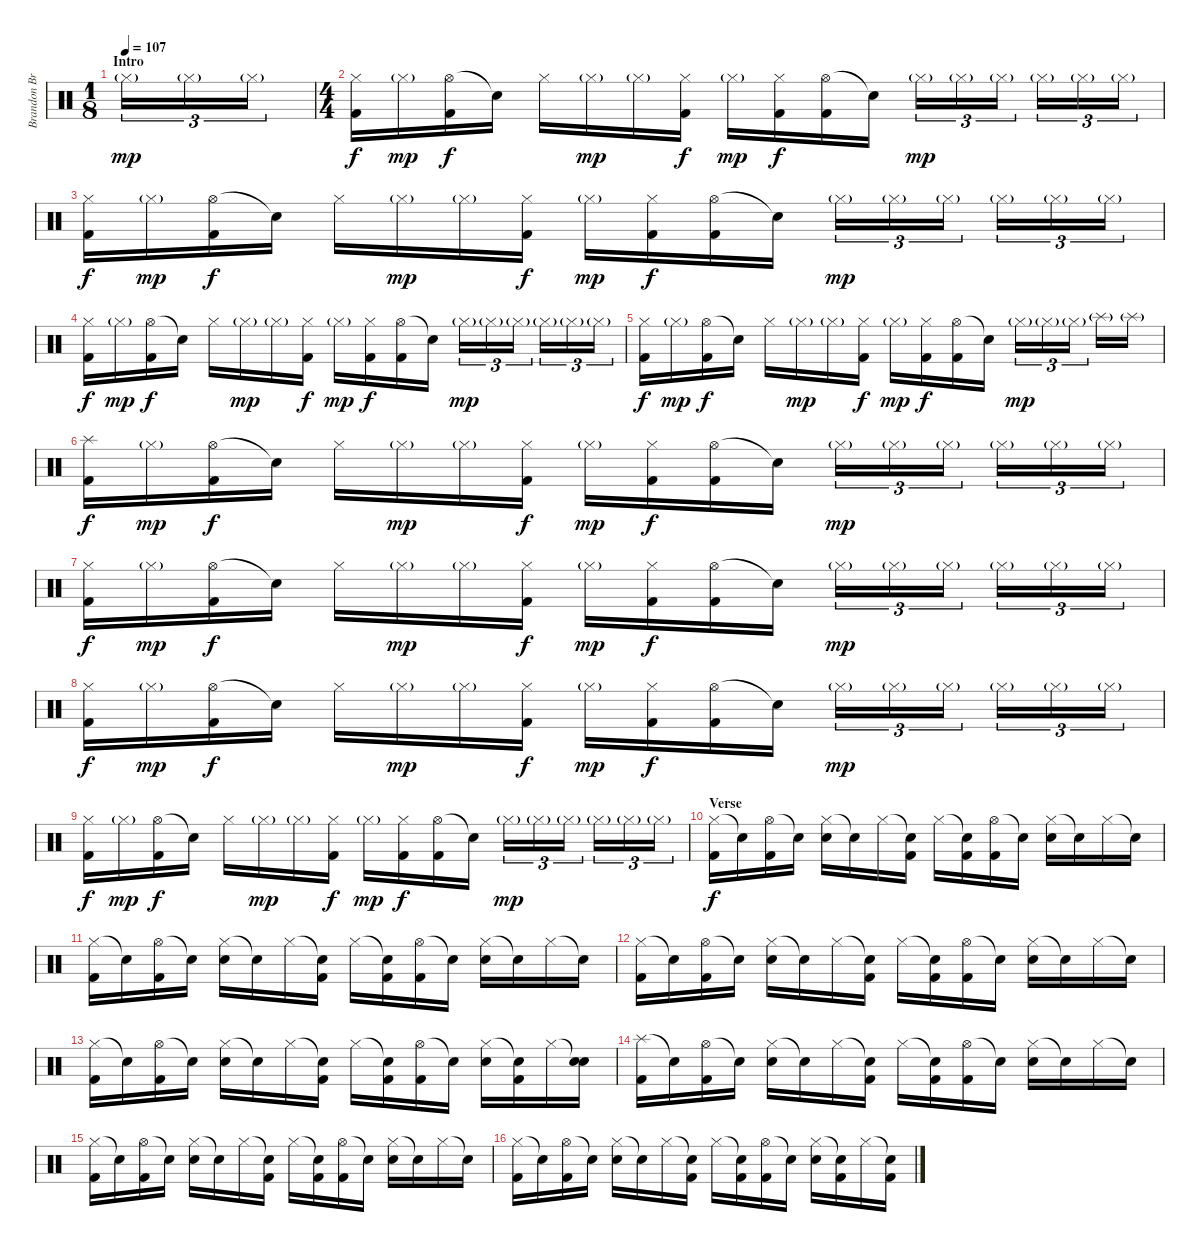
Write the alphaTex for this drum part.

\track ("Brandon Brown (Drums)" "Brandon Br") {instrument percussion}
\staff {score}
\articulation defaults
\ts (1 8)
\section ("" "Intro")
\tempo 107
\clef neutral
\ks c "Hi-Hat (closed)"{g}.16{tu (3 2) dy mp} "Hi-Hat (closed)"{g}.16{tu (3 2)} "Hi-Hat (closed)"{g}.16{tu (3 2)}
|
\ts (4 4)
("Hi-Hat (closed)" "Kick (hit) 2").16{dy f} "Hi-Hat (closed)"{g}.16{dy mp} ("Hi-Hat (open)" "Kick (hit) 2").16{dy f} "Snare (hit)"{t}.16 "Hi-Hat (closed)".16 "Hi-Hat (closed)"{g}.16{dy mp} "Hi-Hat (closed)"{g}.16 ("Hi-Hat (closed)" "Kick (hit) 2").16{dy f} "Hi-Hat (closed)"{g}.16{dy mp} ("Hi-Hat (closed)" "Kick (hit) 2").16{dy f} ("Hi-Hat (open)" "Kick (hit) 2").16 "Snare (hit)"{t}.16 "Hi-Hat (closed)"{g}.16{tu (3 2) dy mp} "Hi-Hat (closed)"{g}.16{tu (3 2)} "Hi-Hat (closed)"{g}.16{tu (3 2)} "Hi-Hat (closed)"{g}.16{tu (3 2)} "Hi-Hat (closed)"{g}.16{tu (3 2)} "Hi-Hat (closed)"{g}.16{tu (3 2)} |
("Hi-Hat (closed)" "Kick (hit) 2").16{dy f} "Hi-Hat (closed)"{g}.16{dy mp} ("Hi-Hat (open)" "Kick (hit) 2").16{dy f} "Snare (hit)"{t}.16 "Hi-Hat (closed)".16 "Hi-Hat (closed)"{g}.16{dy mp} "Hi-Hat (closed)"{g}.16 ("Hi-Hat (closed)" "Kick (hit) 2").16{dy f} "Hi-Hat (closed)"{g}.16{dy mp} ("Hi-Hat (closed)" "Kick (hit) 2").16{dy f} ("Hi-Hat (open)" "Kick (hit) 2").16 "Snare (hit)"{t}.16 "Hi-Hat (closed)"{g}.16{tu (3 2) dy mp} "Hi-Hat (closed)"{g}.16{tu (3 2)} "Hi-Hat (closed)"{g}.16{tu (3 2)} "Hi-Hat (closed)"{g}.16{tu (3 2)} "Hi-Hat (closed)"{g}.16{tu (3 2)} "Hi-Hat (closed)"{g}.16{tu (3 2)} |
("Hi-Hat (closed)" "Kick (hit) 2").16{dy f} "Hi-Hat (closed)"{g}.16{dy mp} ("Hi-Hat (open)" "Kick (hit) 2").16{dy f} "Snare (hit)"{t}.16 "Hi-Hat (closed)".16 "Hi-Hat (closed)"{g}.16{dy mp} "Hi-Hat (closed)"{g}.16 ("Hi-Hat (closed)" "Kick (hit) 2").16{dy f} "Hi-Hat (closed)"{g}.16{dy mp} ("Hi-Hat (closed)" "Kick (hit) 2").16{dy f} ("Hi-Hat (open)" "Kick (hit) 2").16 "Snare (hit)"{t}.16 "Hi-Hat (closed)"{g}.16{tu (3 2) dy mp} "Hi-Hat (closed)"{g}.16{tu (3 2)} "Hi-Hat (closed)"{g}.16{tu (3 2)} "Hi-Hat (closed)"{g}.16{tu (3 2)} "Hi-Hat (closed)"{g}.16{tu (3 2)} "Hi-Hat (closed)"{g}.16{tu (3 2)} |
("Hi-Hat (closed)" "Kick (hit) 2").16{dy f} "Hi-Hat (closed)"{g}.16{dy mp} ("Hi-Hat (open)" "Kick (hit) 2").16{dy f} "Snare (hit)"{t}.16 "Hi-Hat (closed)".16 "Hi-Hat (closed)"{g}.16{dy mp} "Hi-Hat (closed)"{g}.16 ("Hi-Hat (closed)" "Kick (hit) 2").16{dy f} "Hi-Hat (closed)"{g}.16{dy mp} ("Hi-Hat (closed)" "Kick (hit) 2").16{dy f} ("Hi-Hat (open)" "Kick (hit) 2").16 "Snare (hit)"{t}.16 "Hi-Hat (closed)"{g}.16{tu (3 2) dy mp} "Hi-Hat (closed)"{g}.16{tu (3 2)} "Hi-Hat (closed)"{g}.16{tu (3 2)} "Splash (hit)"{g}.16 "Splash (hit)"{g}.16 |
("Splash (hit)" "Kick (hit) 2").16{dy f} "Hi-Hat (closed)"{g}.16{dy mp} ("Hi-Hat (open)" "Kick (hit) 2").16{dy f} "Snare (hit)"{t}.16 "Hi-Hat (closed)".16 "Hi-Hat (closed)"{g}.16{dy mp} "Hi-Hat (closed)"{g}.16 ("Hi-Hat (closed)" "Kick (hit) 2").16{dy f} "Hi-Hat (closed)"{g}.16{dy mp} ("Hi-Hat (closed)" "Kick (hit) 2").16{dy f} ("Hi-Hat (open)" "Kick (hit) 2").16 "Snare (hit)"{t}.16 "Hi-Hat (closed)"{g}.16{tu (3 2) dy mp} "Hi-Hat (closed)"{g}.16{tu (3 2)} "Hi-Hat (closed)"{g}.16{tu (3 2)} "Hi-Hat (closed)"{g}.16{tu (3 2)} "Hi-Hat (closed)"{g}.16{tu (3 2)} "Hi-Hat (closed)"{g}.16{tu (3 2)} |
("Hi-Hat (closed)" "Kick (hit) 2").16{dy f} "Hi-Hat (closed)"{g}.16{dy mp} ("Hi-Hat (open)" "Kick (hit) 2").16{dy f} "Snare (hit)"{t}.16 "Hi-Hat (closed)".16 "Hi-Hat (closed)"{g}.16{dy mp} "Hi-Hat (closed)"{g}.16 ("Hi-Hat (closed)" "Kick (hit) 2").16{dy f} "Hi-Hat (closed)"{g}.16{dy mp} ("Hi-Hat (closed)" "Kick (hit) 2").16{dy f} ("Hi-Hat (open)" "Kick (hit) 2").16 "Snare (hit)"{t}.16 "Hi-Hat (closed)"{g}.16{tu (3 2) dy mp} "Hi-Hat (closed)"{g}.16{tu (3 2)} "Hi-Hat (closed)"{g}.16{tu (3 2)} "Hi-Hat (closed)"{g}.16{tu (3 2)} "Hi-Hat (closed)"{g}.16{tu (3 2)} "Hi-Hat (closed)"{g}.16{tu (3 2)} |
("Hi-Hat (closed)" "Kick (hit) 2").16{dy f} "Hi-Hat (closed)"{g}.16{dy mp} ("Hi-Hat (open)" "Kick (hit) 2").16{dy f} "Snare (hit)"{t}.16 "Hi-Hat (closed)".16 "Hi-Hat (closed)"{g}.16{dy mp} "Hi-Hat (closed)"{g}.16 ("Hi-Hat (closed)" "Kick (hit) 2").16{dy f} "Hi-Hat (closed)"{g}.16{dy mp} ("Hi-Hat (closed)" "Kick (hit) 2").16{dy f} ("Hi-Hat (open)" "Kick (hit) 2").16 "Snare (hit)"{t}.16 "Hi-Hat (closed)"{g}.16{tu (3 2) dy mp} "Hi-Hat (closed)"{g}.16{tu (3 2)} "Hi-Hat (closed)"{g}.16{tu (3 2)} "Hi-Hat (closed)"{g}.16{tu (3 2)} "Hi-Hat (closed)"{g}.16{tu (3 2)} "Hi-Hat (closed)"{g}.16{tu (3 2)} |
("Hi-Hat (closed)" "Kick (hit) 2").16{dy f} "Hi-Hat (closed)"{g}.16{dy mp} ("Hi-Hat (open)" "Kick (hit) 2").16{dy f} "Snare (hit)"{t}.16 "Hi-Hat (closed)".16 "Hi-Hat (closed)"{g}.16{dy mp} "Hi-Hat (closed)"{g}.16 ("Hi-Hat (closed)" "Kick (hit) 2").16{dy f} "Hi-Hat (closed)"{g}.16{dy mp} ("Hi-Hat (closed)" "Kick (hit) 2").16{dy f} ("Hi-Hat (open)" "Kick (hit) 2").16 "Snare (hit)"{t}.16 "Hi-Hat (closed)"{g}.16{tu (3 2) dy mp} "Hi-Hat (closed)"{g}.16{tu (3 2)} "Hi-Hat (closed)"{g}.16{tu (3 2)} "Hi-Hat (closed)"{g}.16{tu (3 2)} "Hi-Hat (closed)"{g}.16{tu (3 2)} "Hi-Hat (closed)"{g}.16{tu (3 2)} |
\section ("" "Verse")
("Hi-Hat (closed)" "Kick (hit) 2").16{dy f} "Snare (hit)"{t}.16 ("Hi-Hat (open)" "Kick (hit) 2").16 "Snare (hit)"{t}.16 ("Hi-Hat (closed)" "Electric Snare (hit)").16 "Snare (hit)"{t}.16 "Hi-Hat (closed)".16 ("Snare (hit)"{t} "Kick (hit) 2").16 "Hi-Hat (closed)".16 ("Snare (hit)"{t} "Kick (hit) 2").16 ("Hi-Hat (open)" "Kick (hit) 2").16 "Snare (hit)"{t}.16 ("Hi-Hat (closed)" "Electric Snare (hit)").16 "Snare (hit)"{t}.16 "Hi-Hat (closed)".16 "Snare (hit)"{t}.16 |
("Hi-Hat (closed)" "Kick (hit) 2").16 "Snare (hit)"{t}.16 ("Hi-Hat (open)" "Kick (hit) 2").16 "Snare (hit)"{t}.16 ("Hi-Hat (closed)" "Electric Snare (hit)").16 "Snare (hit)"{t}.16 "Hi-Hat (closed)".16 ("Snare (hit)"{t} "Kick (hit) 2").16 "Hi-Hat (closed)".16 ("Snare (hit)"{t} "Kick (hit) 2").16 ("Hi-Hat (open)" "Kick (hit) 2").16 "Snare (hit)"{t}.16 ("Hi-Hat (closed)" "Electric Snare (hit)").16 "Snare (hit)"{t}.16 "Hi-Hat (closed)".16 "Snare (hit)"{t}.16 |
("Hi-Hat (closed)" "Kick (hit) 2").16 "Snare (hit)"{t}.16 ("Hi-Hat (open)" "Kick (hit) 2").16 "Snare (hit)"{t}.16 ("Hi-Hat (closed)" "Electric Snare (hit)").16 "Snare (hit)"{t}.16 "Hi-Hat (closed)".16 ("Snare (hit)"{t} "Kick (hit) 2").16 "Hi-Hat (closed)".16 ("Snare (hit)"{t} "Kick (hit) 2").16 ("Hi-Hat (open)" "Kick (hit) 2").16 "Snare (hit)"{t}.16 ("Hi-Hat (closed)" "Electric Snare (hit)").16 "Snare (hit)"{t}.16 "Hi-Hat (closed)".16 "Snare (hit)"{t}.16 |
("Hi-Hat (closed)" "Kick (hit) 2").16 "Snare (hit)"{t}.16 ("Hi-Hat (open)" "Kick (hit) 2").16 "Snare (hit)"{t}.16 ("Hi-Hat (closed)" "Electric Snare (hit)").16 "Snare (hit)"{t}.16 "Hi-Hat (closed)".16 ("Snare (hit)"{t} "Kick (hit) 2").16 "Hi-Hat (closed)".16 ("Snare (hit)"{t} "Kick (hit) 2").16 ("Hi-Hat (open)" "Kick (hit) 2").16 "Snare (hit)"{t}.16 ("Hi-Hat (closed)" "Electric Snare (hit)").16 ("Snare (hit)"{t} "Kick (hit) 2").16 "Hi-Hat (closed)".16 ("Snare (hit)"{t} "Electric Snare (hit)").16 |
("Splash (hit)" "Kick (hit) 2").16 "Snare (hit)"{t}.16 ("Hi-Hat (open)" "Kick (hit) 2").16 "Snare (hit)"{t}.16 ("Hi-Hat (closed)" "Electric Snare (hit)").16 "Snare (hit)"{t}.16 "Hi-Hat (closed)".16 ("Snare (hit)"{t} "Kick (hit) 2").16 "Hi-Hat (closed)".16 ("Snare (hit)"{t} "Kick (hit) 2").16 ("Hi-Hat (open)" "Kick (hit) 2").16 "Snare (hit)"{t}.16 ("Hi-Hat (closed)" "Electric Snare (hit)").16 "Snare (hit)"{t}.16 "Hi-Hat (closed)".16 "Snare (hit)"{t}.16 |
("Hi-Hat (closed)" "Kick (hit) 2").16 "Snare (hit)"{t}.16 ("Hi-Hat (open)" "Kick (hit) 2").16 "Snare (hit)"{t}.16 ("Hi-Hat (closed)" "Electric Snare (hit)").16 "Snare (hit)"{t}.16 "Hi-Hat (closed)".16 ("Snare (hit)"{t} "Kick (hit) 2").16 "Hi-Hat (closed)".16 ("Snare (hit)"{t} "Kick (hit) 2").16 ("Hi-Hat (open)" "Kick (hit) 2").16 "Snare (hit)"{t}.16 ("Hi-Hat (closed)" "Electric Snare (hit)").16 "Snare (hit)"{t}.16 "Hi-Hat (closed)".16 "Snare (hit)"{t}.16 |
("Hi-Hat (closed)" "Kick (hit) 2").16 "Snare (hit)"{t}.16 ("Hi-Hat (open)" "Kick (hit) 2").16 "Snare (hit)"{t}.16 ("Hi-Hat (closed)" "Electric Snare (hit)").16 "Snare (hit)"{t}.16 "Hi-Hat (closed)".16 ("Snare (hit)"{t} "Kick (hit) 2").16 "Hi-Hat (closed)".16 ("Snare (hit)"{t} "Kick (hit) 2").16 ("Hi-Hat (open)" "Kick (hit) 2").16 "Snare (hit)"{t}.16 ("Hi-Hat (closed)" "Electric Snare (hit)").16 ("Snare (hit)"{t} "Kick (hit) 2").16 "Hi-Hat (closed)".16 ("Snare (hit)"{t} "Kick (hit) 2").16
